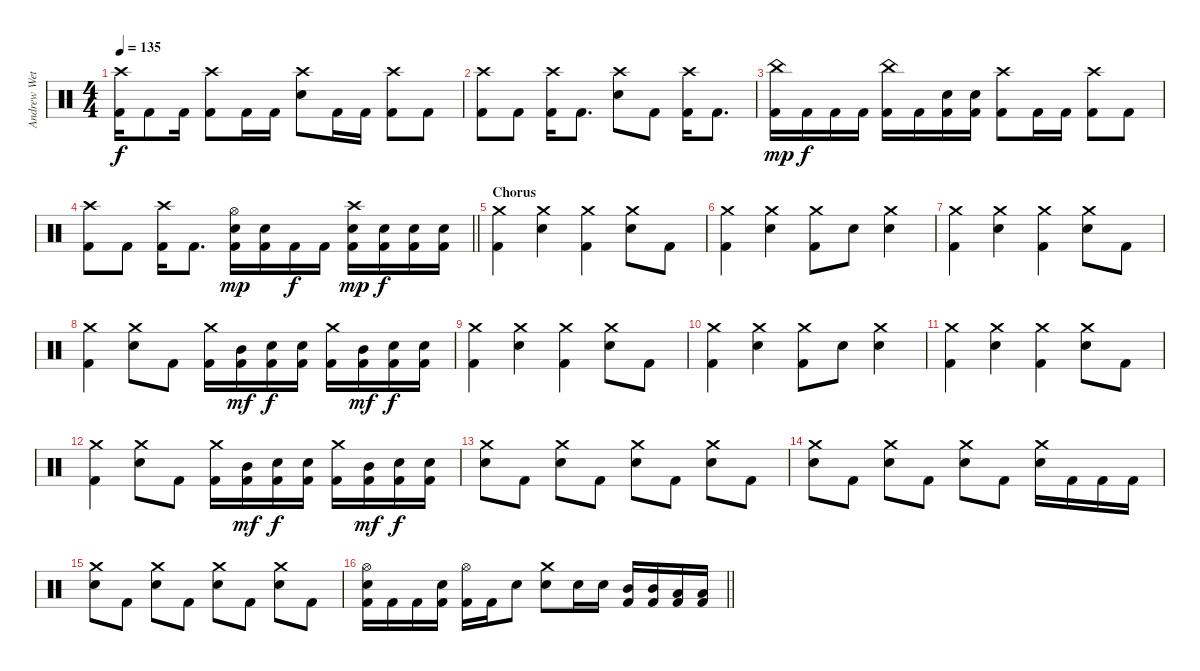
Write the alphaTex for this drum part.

\track ("Andrew Wetzel" "Andrew Wet") {instrument percussion}
\staff
\articulation defaults
\ts (4 4)
\tempo 135
\clef neutral
\ks c
("Crash high (hit)" "Kick (hit) 2").16{dy f} "Kick (hit) 2".8 "Kick (hit) 2".16 ("Crash high (hit)" "Kick (hit) 2").8 "Kick (hit) 2".16 "Kick (hit) 2".16 ("Crash high (hit)" "Snare (hit) 2").8 "Kick (hit) 2".16 "Kick (hit) 2".16 ("Crash high (hit)" "Kick (hit) 2").8 "Kick (hit) 2".8 |
("Crash high (hit)" "Kick (hit) 2").8 "Kick (hit) 2".8 ("Crash high (hit)" "Kick (hit) 2").16 "Kick (hit) 2".8{d} ("Crash high (hit)" "Snare (hit) 2").8 "Kick (hit) 2".8 ("Crash high (hit)" "Kick (hit) 2").16 "Kick (hit) 2".8{d} |
("China (hit)" "Kick (hit) 2").16{dy mp} "Kick (hit) 2".16{dy f} "Kick (hit) 2".16 "Kick (hit) 2".16 ("China (hit)" "Kick (hit) 2").16 "Kick (hit) 2".16 ("Snare (hit) 2" "Kick (hit) 2").16 ("Snare (hit) 2" "Kick (hit) 2").16 ("Crash high (hit)" "Kick (hit) 2").8 "Kick (hit) 2".16 "Kick (hit) 2".16 ("Crash high (hit)" "Kick (hit) 2").8 "Kick (hit) 2".8 |
\barLineRight lightlight
("Crash high (hit)" "Kick (hit) 2").8 "Kick (hit) 2".8 ("Crash high (hit)" "Kick (hit) 2").16 "Kick (hit) 2".8{d} ("Hi-Hat (open)" "Snare (hit) 2" "Kick (hit) 2").16{dy mp} ("Snare (hit) 2" "Kick (hit) 2").16 "Kick (hit) 2".16{dy f} "Kick (hit) 2".16 ("Crash high (hit)" "Snare (hit) 2" "Kick (hit) 2").16{dy mp} ("Snare (hit) 2" "Kick (hit) 2").16{dy f} ("Snare (hit) 2" "Kick (hit) 2").16 ("Snare (hit) 2" "Kick (hit) 2").16 |
\section ("" "Chorus")
("Crash medium (hit)" "Kick (hit) 2").4 ("Crash medium (hit)" "Snare (hit) 2").4 ("Crash medium (hit)" "Kick (hit) 2").4 ("Crash medium (hit)" "Snare (hit) 2").8 "Kick (hit) 2".8 |
("Crash medium (hit)" "Kick (hit) 2").4 ("Crash medium (hit)" "Snare (hit) 2").4 ("Crash medium (hit)" "Kick (hit) 2").8 "Snare (hit) 2".8 ("Crash medium (hit)" "Snare (hit) 2").4 |
("Crash medium (hit)" "Kick (hit) 2").4 ("Crash medium (hit)" "Snare (hit) 2").4 ("Crash medium (hit)" "Kick (hit) 2").4 ("Crash medium (hit)" "Snare (hit) 2").8 "Kick (hit) 2".8 |
("Crash medium (hit)" "Kick (hit) 2").4 ("Crash medium (hit)" "Snare (hit) 2").8 "Kick (hit) 2".8 ("Crash medium (hit)" "Kick (hit) 2").16 ("Mid Tom (hit)" "Kick (hit) 2").16{dy mf} ("Snare (hit) 2" "Kick (hit) 2").16{dy f} ("Snare (hit) 2" "Kick (hit) 2").16 ("Crash medium (hit)" "Kick (hit) 2").16 ("Mid Tom (hit)" "Kick (hit) 2").16{dy mf} ("Snare (hit) 2" "Kick (hit) 2").16{dy f} ("Snare (hit) 2" "Kick (hit) 2").16 |
("Crash medium (hit)" "Kick (hit) 2").4 ("Crash medium (hit)" "Snare (hit) 2").4 ("Crash medium (hit)" "Kick (hit) 2").4 ("Crash medium (hit)" "Snare (hit) 2").8 "Kick (hit) 2".8 |
("Crash medium (hit)" "Kick (hit) 2").4 ("Crash medium (hit)" "Snare (hit) 2").4 ("Crash medium (hit)" "Kick (hit) 2").8 "Snare (hit) 2".8 ("Crash medium (hit)" "Snare (hit) 2").4 |
("Crash medium (hit)" "Kick (hit) 2").4 ("Crash medium (hit)" "Snare (hit) 2").4 ("Crash medium (hit)" "Kick (hit) 2").4 ("Crash medium (hit)" "Snare (hit) 2").8 "Kick (hit) 2".8 |
("Crash medium (hit)" "Kick (hit) 2").4 ("Crash medium (hit)" "Snare (hit) 2").8 "Kick (hit) 2".8 ("Crash medium (hit)" "Kick (hit) 2").16 ("Mid Tom (hit)" "Kick (hit) 2").16{dy mf} ("Snare (hit) 2" "Kick (hit) 2").16{dy f} ("Snare (hit) 2" "Kick (hit) 2").16 ("Crash medium (hit)" "Kick (hit) 2").16 ("Mid Tom (hit)" "Kick (hit) 2").16{dy mf} ("Snare (hit) 2" "Kick (hit) 2").16{dy f} ("Snare (hit) 2" "Kick (hit) 2").16 |
("Crash medium (hit)" "Snare (hit) 2").8 "Kick (hit) 2".8 ("Crash medium (hit)" "Snare (hit) 2").8 "Kick (hit) 2".8 ("Crash medium (hit)" "Snare (hit) 2").8 "Kick (hit) 2".8 ("Crash medium (hit)" "Snare (hit) 2").8 "Kick (hit) 2".8 |
("Crash medium (hit)" "Snare (hit) 2").8 "Kick (hit) 2".8 ("Crash medium (hit)" "Snare (hit) 2").8 "Kick (hit) 2".8 ("Crash medium (hit)" "Snare (hit) 2").8 "Kick (hit) 2".8 ("Crash medium (hit)" "Snare (hit) 2").16 "Kick (hit) 2".16 "Kick (hit) 2".16 "Kick (hit) 2".16 |
("Crash medium (hit)" "Snare (hit) 2").8 "Kick (hit) 2".8 ("Crash medium (hit)" "Snare (hit) 2").8 "Kick (hit) 2".8 ("Crash medium (hit)" "Snare (hit) 2").8 "Kick (hit) 2".8 ("Crash medium (hit)" "Snare (hit) 2").8 "Kick (hit) 2".8 |
\barLineRight lightlight
("Hi-Hat (open)" "Snare (hit) 2" "Kick (hit) 2").16 "Kick (hit) 2".16 "Kick (hit) 2".16 ("Snare (hit) 2" "Kick (hit) 2").16 ("Hi-Hat (open)" "Kick (hit) 2").16 "Kick (hit) 2".16 "Snare (hit) 2".8 ("Crash medium (hit)" "Snare (hit) 2").8 "Snare (hit) 2".16 "Snare (hit) 2".16 ("Mid Tom (hit)" "Kick (hit) 2").16 ("Mid Tom (hit)" "Kick (hit) 2").16 ("Low Tom (hit)" "Kick (hit) 2").16 ("Low Tom (hit)" "Kick (hit) 2").16
